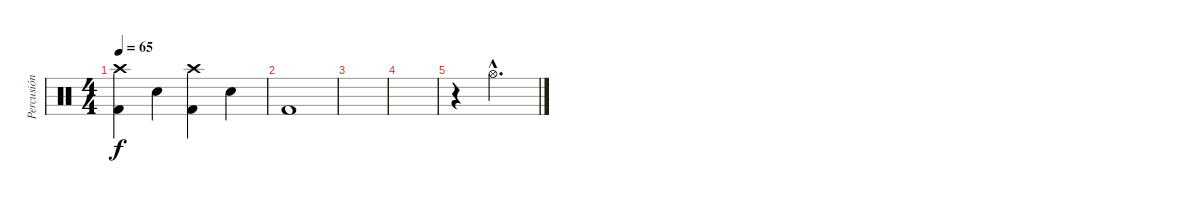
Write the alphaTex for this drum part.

\track ("Percusión" "Percusión") {instrument percussion}
\staff {score}
\articulation defaults
\ts (4 4)
\tempo 65
\clef neutral
\ks c
("Crash high (hit)" "Kick (hit) 2").4{dy f} "Snare (hit) 2".4 ("Crash high (hit)" "Kick (hit) 2").4 "Snare (hit) 2".4 |
"Kick (hit) 2".1 |
|
|
r.4 "Hi-Hat (open)"{hac}.2{d}
